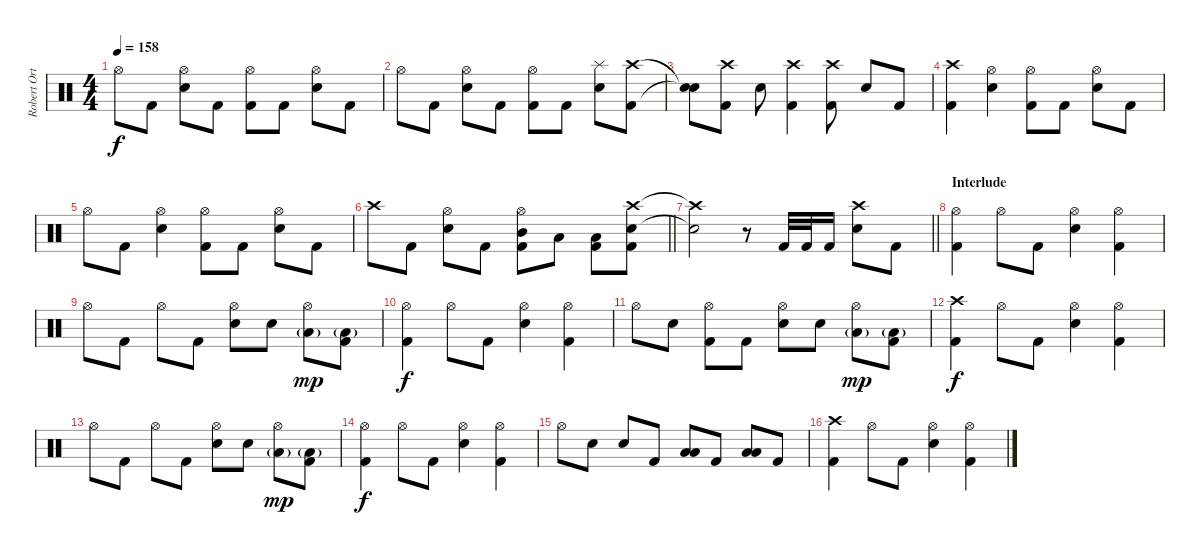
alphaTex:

\track ("Robert Ortiz [Drums]" "Robert Ort") {instrument percussion}
\staff {score}
\articulation defaults
\ts (4 4)
\tempo 158
\clef neutral
\ks c "Hi-Hat (open)".8{dy f} "Kick (hit) 2".8
("Hi-Hat (open)" "Electric Snare (hit)").8 "Kick (hit) 2".8 ("Hi-Hat (open)" "Kick (hit) 2").8 "Kick (hit) 2".8 ("Hi-Hat (open)" "Electric Snare (hit)").8 "Kick (hit) 2".8 |
"Hi-Hat (open)".8 "Kick (hit) 2".8 ("Hi-Hat (open)" "Electric Snare (hit)").8 "Kick (hit) 2".8 ("Hi-Hat (open)" "Kick (hit) 2").8 "Kick (hit) 2".8 ("Splash (hit)" "Electric Snare (hit)").8 ("Crash high (hit)" "Kick (hit) 2").8 |
("Snare (hit)"{t} "Snare (hit)"{t}).8 ("Crash high (hit)" "Kick (hit) 2").8 "Electric Snare (hit)".8 ("Crash high (hit)" "Kick (hit) 2").4 ("Crash high (hit)" "Kick (hit) 2").8 "Electric Snare (hit)".8 "Kick (hit) 2".8 |
("Crash high (hit)" "Kick (hit) 2").4 ("Hi-Hat (open)" "Electric Snare (hit)").4 ("Hi-Hat (open)" "Kick (hit) 2").8 "Kick (hit) 2".8 ("Hi-Hat (open)" "Electric Snare (hit)").8 "Kick (hit) 2".8 |
"Hi-Hat (open)".8 "Kick (hit) 2".8 ("Hi-Hat (open)" "Electric Snare (hit)").4 ("Hi-Hat (open)" "Kick (hit) 2").8 "Kick (hit) 2".8 ("Hi-Hat (open)" "Electric Snare (hit)").8 "Kick (hit) 2".8 |
\barLineRight lightlight "Crash high (hit)".8 "Kick (hit) 2".8
("Hi-Hat (open)" "Electric Snare (hit)").8 "Kick (hit) 2".8 ("Hi-Hat (open)" "Mid Tom (hit)" "Kick (hit) 2").8 "Low Tom (hit)".8 ("Low Floor Tom (hit)" "Kick (hit) 2").8 ("Crash high (hit)" "Electric Snare (hit)" "Kick (hit) 2").8 |
\barLineRight lightlight
("Crash high (hit)"{t} "Snare (hit)"{t}).2 r.8 "Kick (hit) 2".32 "Kick (hit) 2".32 "Kick (hit) 2".16 ("Crash high (hit)" "Electric Snare (hit)").8 "Kick (hit) 2".8 |
\section ("" "Interlude")
("Hi-Hat (open)" "Kick (hit) 2").4 "Hi-Hat (open)".8 "Kick (hit) 2".8 ("Hi-Hat (open)" "Electric Snare (hit)").4 ("Hi-Hat (open)" "Kick (hit) 2").4 |
"Hi-Hat (open)".8 "Kick (hit) 2".8 "Hi-Hat (open)".8 "Kick (hit) 2".8 ("Hi-Hat (open)" "Electric Snare (hit)").8 "Electric Snare (hit)".8 ("Hi-Hat (open)" "Low Tom (hit)"{g}).8{dy mp} ("Low Tom (hit)"{g} "Kick (hit) 2").8 |
("Hi-Hat (open)" "Kick (hit) 2").4{dy f} "Hi-Hat (open)".8 "Kick (hit) 2".8 ("Hi-Hat (open)" "Electric Snare (hit)").4 ("Hi-Hat (open)" "Kick (hit) 2").4 |
"Hi-Hat (open)".8 "Electric Snare (hit)".8 ("Hi-Hat (open)" "Kick (hit) 2").8 "Kick (hit) 2".8 ("Hi-Hat (open)" "Electric Snare (hit)").8 "Electric Snare (hit)".8 ("Hi-Hat (open)" "Low Tom (hit)"{g}).8{dy mp} ("Low Tom (hit)"{g} "Kick (hit) 2").8 |
("Crash high (hit)" "Kick (hit) 2").4{dy f} "Hi-Hat (open)".8 "Kick (hit) 2".8 ("Hi-Hat (open)" "Electric Snare (hit)").4 ("Hi-Hat (open)" "Kick (hit) 2").4 |
"Hi-Hat (open)".8 "Kick (hit) 2".8 "Hi-Hat (open)".8 "Kick (hit) 2".8 ("Hi-Hat (open)" "Electric Snare (hit)").8 "Electric Snare (hit)".8 ("Hi-Hat (open)" "Low Tom (hit)"{g}).8{dy mp} ("Low Tom (hit)"{g} "Kick (hit) 2").8 |
("Hi-Hat (open)" "Kick (hit) 2").4{dy f} "Hi-Hat (open)".8 "Kick (hit) 2".8 ("Hi-Hat (open)" "Electric Snare (hit)").4 ("Hi-Hat (open)" "Kick (hit) 2").4 |
"Hi-Hat (open)".8 "Electric Snare (hit)".8 "Electric Snare (hit)".8 "Kick (hit) 2".8 ("Low Tom (hit)" "Low Floor Tom (hit)").8 "Kick (hit) 2".8 ("Low Tom (hit)" "Low Floor Tom (hit)").8 "Kick (hit) 2".8 |
("Crash high (hit)" "Kick (hit) 2").4 "Hi-Hat (open)".8 "Kick (hit) 2".8 ("Hi-Hat (open)" "Electric Snare (hit)").4 ("Hi-Hat (open)" "Kick (hit) 2").4
